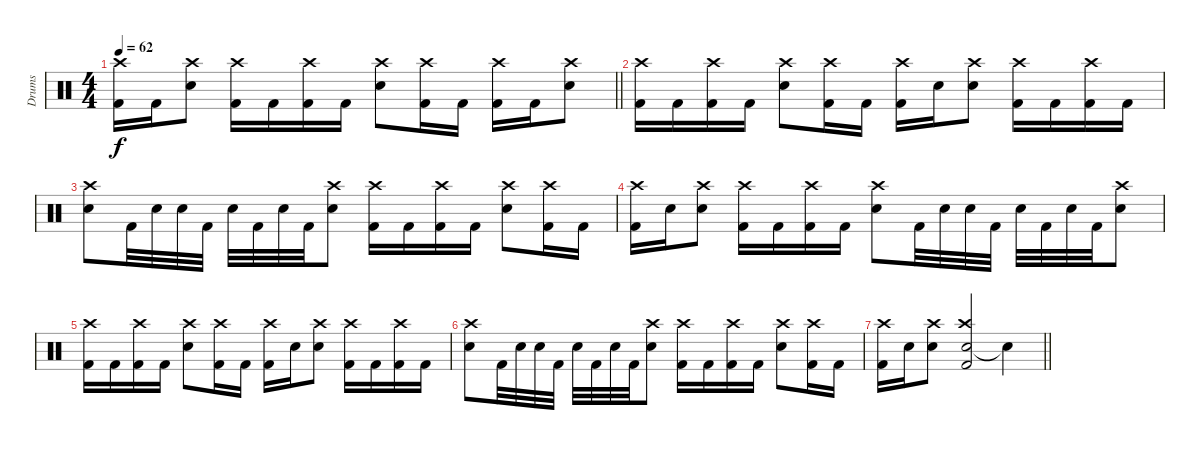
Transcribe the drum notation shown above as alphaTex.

\track ("Drums" "Drums") {instrument percussion}
\staff {score}
\articulation defaults
\ts (4 4)
\tempo 62
\clef neutral
\barLineRight lightlight
\ks c
("Kick (hit) 2" "Crash high (hit)").16{dy f} "Kick (hit) 2".16 ("Electric Snare (hit)" "Crash high (hit)").8 ("Kick (hit) 2" "Crash high (hit)").16 "Kick (hit) 2".16 ("Kick (hit) 2" "Crash high (hit)").16 "Kick (hit) 2".16 ("Electric Snare (hit)" "Crash high (hit)").8 ("Kick (hit) 2" "Crash high (hit)").16 "Kick (hit) 2".16 ("Kick (hit) 2" "Crash high (hit)").16 "Kick (hit) 2".16 ("Electric Snare (hit)" "Crash high (hit)").8 |
("Kick (hit) 2" "Crash high (hit)").16 "Kick (hit) 2".16 ("Kick (hit) 2" "Crash high (hit)").16 "Kick (hit) 2".16 ("Electric Snare (hit)" "Crash high (hit)").8 ("Kick (hit) 2" "Crash high (hit)").16 "Kick (hit) 2".16 ("Kick (hit) 2" "Crash high (hit)").16 "Electric Snare (hit)".16 ("Electric Snare (hit)" "Crash high (hit)").8 ("Kick (hit) 2" "Crash high (hit)").16 "Kick (hit) 2".16 ("Kick (hit) 2" "Crash high (hit)").16 "Kick (hit) 2".16 |
("Electric Snare (hit)" "Crash high (hit)").8 "Kick (hit) 2".32 "Electric Snare (hit)".32 "Electric Snare (hit)".32 "Kick (hit) 2".32 "Electric Snare (hit)".32 "Kick (hit) 2".32 "Electric Snare (hit)".32 "Kick (hit) 2".32 ("Electric Snare (hit)" "Crash high (hit)").8 ("Kick (hit) 2" "Crash high (hit)").16 "Kick (hit) 2".16 ("Kick (hit) 2" "Crash high (hit)").16 "Kick (hit) 2".16 ("Electric Snare (hit)" "Crash high (hit)").8 ("Kick (hit) 2" "Crash high (hit)").16 "Kick (hit) 2".16 |
("Kick (hit) 2" "Crash high (hit)").16 "Electric Snare (hit)".16 ("Electric Snare (hit)" "Crash high (hit)").8 ("Kick (hit) 2" "Crash high (hit)").16 "Kick (hit) 2".16 ("Kick (hit) 2" "Crash high (hit)").16 "Kick (hit) 2".16 ("Electric Snare (hit)" "Crash high (hit)").8 "Kick (hit) 2".32 "Electric Snare (hit)".32 "Electric Snare (hit)".32 "Kick (hit) 2".32 "Electric Snare (hit)".32 "Kick (hit) 2".32 "Electric Snare (hit)".32 "Kick (hit) 2".32 ("Electric Snare (hit)" "Crash high (hit)").8 |
("Kick (hit) 2" "Crash high (hit)").16 "Kick (hit) 2".16 ("Kick (hit) 2" "Crash high (hit)").16 "Kick (hit) 2".16 ("Electric Snare (hit)" "Crash high (hit)").8 ("Kick (hit) 2" "Crash high (hit)").16 "Kick (hit) 2".16 ("Kick (hit) 2" "Crash high (hit)").16 "Electric Snare (hit)".16 ("Electric Snare (hit)" "Crash high (hit)").8 ("Kick (hit) 2" "Crash high (hit)").16 "Kick (hit) 2".16 ("Kick (hit) 2" "Crash high (hit)").16 "Kick (hit) 2".16 |
("Electric Snare (hit)" "Crash high (hit)").8 "Kick (hit) 2".32 "Electric Snare (hit)".32 "Electric Snare (hit)".32 "Kick (hit) 2".32 "Electric Snare (hit)".32 "Kick (hit) 2".32 "Electric Snare (hit)".32 "Kick (hit) 2".32 ("Electric Snare (hit)" "Crash high (hit)").8 ("Kick (hit) 2" "Crash high (hit)").16 "Kick (hit) 2".16 ("Kick (hit) 2" "Crash high (hit)").16 "Kick (hit) 2".16 ("Electric Snare (hit)" "Crash high (hit)").8 ("Kick (hit) 2" "Crash high (hit)").16 "Kick (hit) 2".16 |
\barLineRight lightlight
("Kick (hit) 2" "Crash high (hit)").16 "Electric Snare (hit)".16 ("Electric Snare (hit)" "Crash high (hit)").8 ("Electric Snare (hit)" "Kick (hit) 2" "Crash high (hit)").2{volume 12} "Snare (hit)"{t}.4
